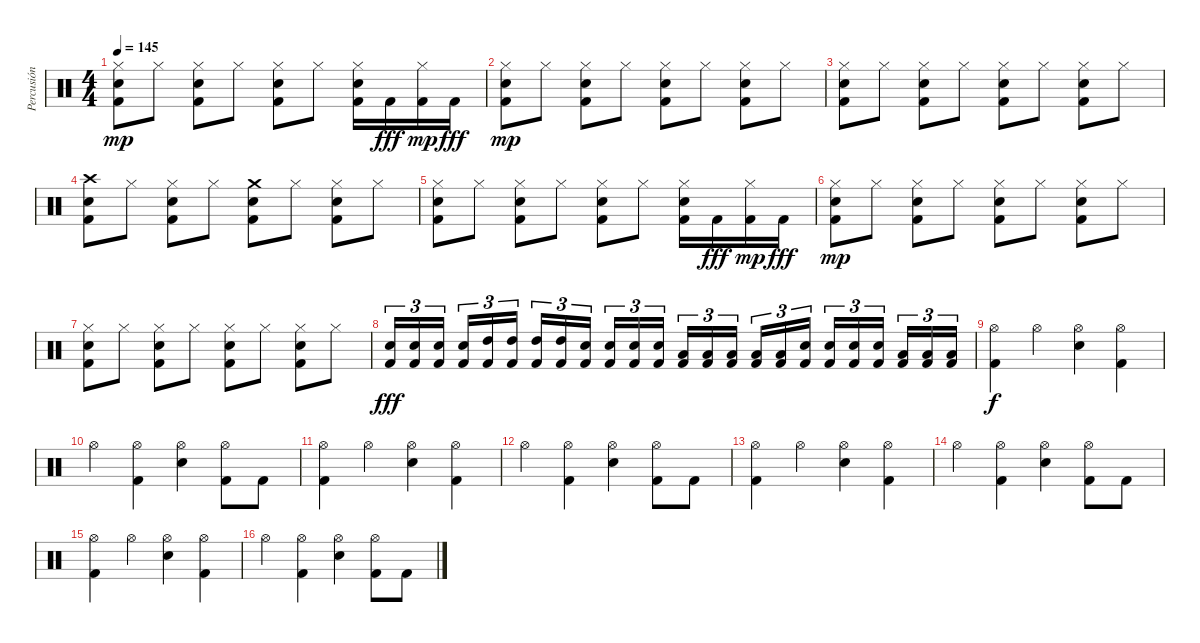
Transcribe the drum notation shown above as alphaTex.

\track ("Percusión" "Percusión") {instrument percussion}
\staff {score}
\articulation defaults
\ts (4 4)
\tempo 145
\clef neutral
\ks c
("Kick (hit) 2" "Snare (hit) 2" "Hi-Hat (closed)").8{dy mp} "Hi-Hat (closed)".8 ("Kick (hit) 2" "Snare (hit) 2" "Hi-Hat (closed)").8 "Hi-Hat (closed)".8 ("Kick (hit) 2" "Snare (hit) 2" "Hi-Hat (closed)").8 "Hi-Hat (closed)".8 ("Kick (hit) 2" "Snare (hit) 2" "Hi-Hat (closed)").16 "Kick (hit) 2".16{dy fff} ("Kick (hit) 2" "Hi-Hat (closed)").16{dy mp} "Kick (hit) 2".16{dy fff} |
("Kick (hit) 2" "Snare (hit) 2" "Hi-Hat (closed)").8{dy mp} "Hi-Hat (closed)".8 ("Kick (hit) 2" "Snare (hit) 2" "Hi-Hat (closed)").8 "Hi-Hat (closed)".8 ("Kick (hit) 2" "Snare (hit) 2" "Hi-Hat (closed)").8 "Hi-Hat (closed)".8 ("Kick (hit) 2" "Snare (hit) 2" "Hi-Hat (closed)").8 "Hi-Hat (closed)".8 |
("Kick (hit) 2" "Snare (hit) 2" "Hi-Hat (closed)").8 "Hi-Hat (closed)".8 ("Kick (hit) 2" "Snare (hit) 2" "Hi-Hat (closed)").8 "Hi-Hat (closed)".8 ("Kick (hit) 2" "Snare (hit) 2" "Hi-Hat (closed)").8 "Hi-Hat (closed)".8 ("Kick (hit) 2" "Snare (hit) 2" "Hi-Hat (closed)").8 "Hi-Hat (closed)".8 |
("Kick (hit) 2" "Snare (hit) 2" "Crash high (hit)").8 "Hi-Hat (closed)".8 ("Kick (hit) 2" "Snare (hit) 2" "Hi-Hat (closed)").8 "Hi-Hat (closed)".8 ("Kick (hit) 2" "Snare (hit) 2" "Crash medium (hit)").8 "Hi-Hat (closed)".8 ("Kick (hit) 2" "Snare (hit) 2" "Hi-Hat (closed)").8 "Hi-Hat (closed)".8 |
("Kick (hit) 2" "Snare (hit) 2" "Hi-Hat (closed)").8 "Hi-Hat (closed)".8 ("Kick (hit) 2" "Snare (hit) 2" "Hi-Hat (closed)").8 "Hi-Hat (closed)".8 ("Kick (hit) 2" "Snare (hit) 2" "Hi-Hat (closed)").8 "Hi-Hat (closed)".8 ("Kick (hit) 2" "Snare (hit) 2" "Hi-Hat (closed)").16 "Kick (hit) 2".16{dy fff} ("Kick (hit) 2" "Hi-Hat (closed)").16{dy mp} "Kick (hit) 2".16{dy fff} |
("Kick (hit) 2" "Snare (hit) 2" "Hi-Hat (closed)").8{dy mp} "Hi-Hat (closed)".8 ("Kick (hit) 2" "Snare (hit) 2" "Hi-Hat (closed)").8 "Hi-Hat (closed)".8 ("Kick (hit) 2" "Snare (hit) 2" "Hi-Hat (closed)").8 "Hi-Hat (closed)".8 ("Kick (hit) 2" "Snare (hit) 2" "Hi-Hat (closed)").8 "Hi-Hat (closed)".8 |
("Kick (hit) 2" "Snare (hit) 2" "Hi-Hat (closed)").8 "Hi-Hat (closed)".8 ("Kick (hit) 2" "Snare (hit) 2" "Hi-Hat (closed)").8 "Hi-Hat (closed)".8 ("Kick (hit) 2" "Snare (hit) 2" "Hi-Hat (closed)").8 "Hi-Hat (closed)".8 ("Kick (hit) 2" "Snare (hit) 2" "Hi-Hat (closed)").8 "Hi-Hat (closed)".8 |
("Kick (hit) 2" "Snare (hit) 2").16{tu (3 2) dy fff} ("Kick (hit) 2" "Snare (hit) 2").16{tu (3 2)} ("Kick (hit) 2" "Snare (hit) 2").16{tu (3 2) beam splitsecondary} ("Kick (hit) 2" "Snare (hit) 2").16{tu (3 2)} ("Kick (hit) 2" "High Tom (hit)").16{tu (3 2)} ("Kick (hit) 2" "High Tom (hit)").16{tu (3 2)} ("Kick (hit) 2" "High Tom (hit)").16{tu (3 2)} ("Kick (hit) 2" "High Tom (hit)").16{tu (3 2)} ("Kick (hit) 2" "Snare (hit) 2").16{tu (3 2) beam splitsecondary} ("Kick (hit) 2" "Snare (hit) 2").16{tu (3 2)} ("Kick (hit) 2" "Snare (hit) 2").16{tu (3 2)} ("Kick (hit) 2" "Snare (hit) 2").16{tu (3 2)} ("Kick (hit) 2" "Low Tom (hit)").16{tu (3 2)} ("Kick (hit) 2" "Low Tom (hit)").16{tu (3 2)} ("Kick (hit) 2" "Low Tom (hit)").16{tu (3 2) beam splitsecondary} ("Kick (hit) 2" "Low Tom (hit)").16{tu (3 2)} ("Kick (hit) 2" "Low Tom (hit)").16{tu (3 2)} ("Kick (hit) 2" "Snare (hit) 2").16{tu (3 2)} ("Kick (hit) 2" "Snare (hit) 2").16{tu (3 2)} ("Kick (hit) 2" "Snare (hit) 2").16{tu (3 2)} ("Kick (hit) 2" "Snare (hit) 2").16{tu (3 2) beam splitsecondary} ("Kick (hit) 2" "Low Floor Tom (hit)").16{tu (3 2)} ("Kick (hit) 2" "Low Floor Tom (hit)").16{tu (3 2)} ("Kick (hit) 2" "Low Floor Tom (hit)").16{tu (3 2)} |
("Kick (hit) 2" "Hi-Hat (open)").4{dy f} "Hi-Hat (open)".4 ("Snare (hit) 2" "Hi-Hat (open)").4 ("Kick (hit) 2" "Hi-Hat (open)").4 |
"Hi-Hat (open)".4 ("Kick (hit) 2" "Hi-Hat (open)").4 ("Snare (hit) 2" "Hi-Hat (open)").4 ("Kick (hit) 2" "Hi-Hat (open)").8 "Kick (hit) 2".8 |
("Kick (hit) 2" "Hi-Hat (open)").4 "Hi-Hat (open)".4 ("Snare (hit) 2" "Hi-Hat (open)").4 ("Kick (hit) 2" "Hi-Hat (open)").4 |
"Hi-Hat (open)".4 ("Kick (hit) 2" "Hi-Hat (open)").4 ("Snare (hit) 2" "Hi-Hat (open)").4 ("Kick (hit) 2" "Hi-Hat (open)").8 "Kick (hit) 2".8 |
("Kick (hit) 2" "Hi-Hat (open)").4 "Hi-Hat (open)".4 ("Snare (hit) 2" "Hi-Hat (open)").4 ("Kick (hit) 2" "Hi-Hat (open)").4 |
"Hi-Hat (open)".4 ("Kick (hit) 2" "Hi-Hat (open)").4 ("Snare (hit) 2" "Hi-Hat (open)").4 ("Kick (hit) 2" "Hi-Hat (open)").8 "Kick (hit) 2".8 |
("Kick (hit) 2" "Hi-Hat (open)").4 "Hi-Hat (open)".4 ("Snare (hit) 2" "Hi-Hat (open)").4 ("Kick (hit) 2" "Hi-Hat (open)").4 |
"Hi-Hat (open)".4 ("Kick (hit) 2" "Hi-Hat (open)").4 ("Snare (hit) 2" "Hi-Hat (open)").4 ("Kick (hit) 2" "Hi-Hat (open)").8 "Kick (hit) 2".8
